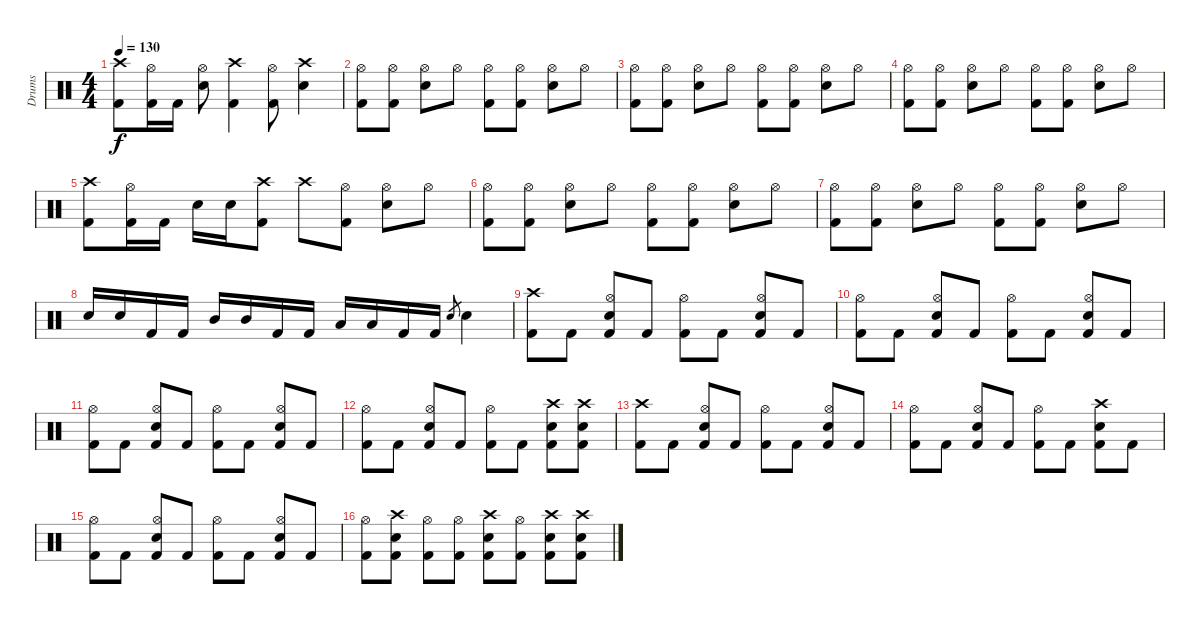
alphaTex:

\track ("Drums" "Drums") {instrument percussion}
\staff {score}
\articulation defaults
\ts (4 4)
\tempo 130
\clef neutral
\ks c
("Crash high (hit)" "Kick (hit) 2").8{dy f} ("Hi-Hat (open)" "Kick (hit) 2").16 "Kick (hit) 2".16 ("Hi-Hat (open)" "Electric Snare (hit)").8 ("Crash high (hit)" "Kick (hit) 2").4 ("Hi-Hat (open)" "Kick (hit) 2").8 ("Crash high (hit)" "Electric Snare (hit)").4 |
("Hi-Hat (open)" "Kick (hit) 2").8 ("Hi-Hat (open)" "Kick (hit) 2").8 ("Hi-Hat (open)" "Electric Snare (hit)").8 "Hi-Hat (open)".8 ("Hi-Hat (open)" "Kick (hit) 2").8 ("Hi-Hat (open)" "Kick (hit) 2").8 ("Hi-Hat (open)" "Electric Snare (hit)").8 "Hi-Hat (open)".8 |
("Hi-Hat (open)" "Kick (hit) 2").8 ("Hi-Hat (open)" "Kick (hit) 2").8 ("Hi-Hat (open)" "Electric Snare (hit)").8 "Hi-Hat (open)".8 ("Hi-Hat (open)" "Kick (hit) 2").8 ("Hi-Hat (open)" "Kick (hit) 2").8 ("Hi-Hat (open)" "Electric Snare (hit)").8 "Hi-Hat (open)".8 |
("Hi-Hat (open)" "Kick (hit) 2").8 ("Hi-Hat (open)" "Kick (hit) 2").8 ("Hi-Hat (open)" "Electric Snare (hit)").8 "Hi-Hat (open)".8 ("Hi-Hat (open)" "Kick (hit) 2").8 ("Hi-Hat (open)" "Kick (hit) 2").8 ("Hi-Hat (open)" "Electric Snare (hit)").8 "Hi-Hat (open)".8 |
("Crash high (hit)" "Kick (hit) 2").8 ("Hi-Hat (open)" "Kick (hit) 2").16 "Kick (hit) 2".16 "Electric Snare (hit)".16 "Electric Snare (hit)".16 ("Crash high (hit)" "Kick (hit) 2").8 "Crash high (hit)".8 ("Hi-Hat (open)" "Kick (hit) 2").8 ("Hi-Hat (open)" "Electric Snare (hit)").8 "Hi-Hat (open)".8 |
("Hi-Hat (open)" "Kick (hit) 2").8 ("Hi-Hat (open)" "Kick (hit) 2").8 ("Hi-Hat (open)" "Electric Snare (hit)").8 "Hi-Hat (open)".8 ("Hi-Hat (open)" "Kick (hit) 2").8 ("Hi-Hat (open)" "Kick (hit) 2").8 ("Hi-Hat (open)" "Electric Snare (hit)").8 "Hi-Hat (open)".8 |
("Hi-Hat (open)" "Kick (hit) 2").8 ("Hi-Hat (open)" "Kick (hit) 2").8 ("Hi-Hat (open)" "Electric Snare (hit)").8 "Hi-Hat (open)".8 ("Hi-Hat (open)" "Kick (hit) 2").8 ("Hi-Hat (open)" "Kick (hit) 2").8 ("Hi-Hat (open)" "Electric Snare (hit)").8 "Hi-Hat (open)".8 |
"Electric Snare (hit)".16 "Electric Snare (hit)".16 "Kick (hit) 2".16 "Kick (hit) 2".16 "Mid Tom (hit)".16 "Mid Tom (hit)".16 "Kick (hit) 2".16 "Kick (hit) 2".16 "Low Tom (hit)".16 "Low Tom (hit)".16 "Kick (hit) 2".16 "Kick (hit) 2".16 "Electric Snare (hit)".8{gr} "Electric Snare (hit)".4 |
("Crash high (hit)" "Kick (hit) 2").8 "Kick (hit) 2".8 ("Hi-Hat (open)" "Electric Snare (hit)" "Kick (hit) 2").8 "Kick (hit) 2".8 ("Hi-Hat (open)" "Kick (hit) 2").8 "Kick (hit) 2".8 ("Hi-Hat (open)" "Electric Snare (hit)" "Kick (hit) 2").8 "Kick (hit) 2".8 |
("Hi-Hat (open)" "Kick (hit) 2").8 "Kick (hit) 2".8 ("Hi-Hat (open)" "Electric Snare (hit)" "Kick (hit) 2").8 "Kick (hit) 2".8 ("Hi-Hat (open)" "Kick (hit) 2").8 "Kick (hit) 2".8 ("Hi-Hat (open)" "Electric Snare (hit)" "Kick (hit) 2").8 "Kick (hit) 2".8 |
("Hi-Hat (open)" "Kick (hit) 2").8 "Kick (hit) 2".8 ("Hi-Hat (open)" "Electric Snare (hit)" "Kick (hit) 2").8 "Kick (hit) 2".8 ("Hi-Hat (open)" "Kick (hit) 2").8 "Kick (hit) 2".8 ("Hi-Hat (open)" "Electric Snare (hit)" "Kick (hit) 2").8 "Kick (hit) 2".8 |
("Hi-Hat (open)" "Kick (hit) 2").8 "Kick (hit) 2".8 ("Hi-Hat (open)" "Electric Snare (hit)" "Kick (hit) 2").8 "Kick (hit) 2".8 ("Hi-Hat (open)" "Kick (hit) 2").8 "Kick (hit) 2".8 ("Crash high (hit)" "Electric Snare (hit)" "Kick (hit) 2").8 ("Crash high (hit)" "Electric Snare (hit)" "Kick (hit) 2").8 |
("Crash high (hit)" "Kick (hit) 2").8 "Kick (hit) 2".8 ("Hi-Hat (open)" "Electric Snare (hit)" "Kick (hit) 2").8 "Kick (hit) 2".8 ("Hi-Hat (open)" "Kick (hit) 2").8 "Kick (hit) 2".8 ("Hi-Hat (open)" "Electric Snare (hit)" "Kick (hit) 2").8 "Kick (hit) 2".8 |
("Hi-Hat (open)" "Kick (hit) 2").8 "Kick (hit) 2".8 ("Hi-Hat (open)" "Electric Snare (hit)" "Kick (hit) 2").8 "Kick (hit) 2".8 ("Hi-Hat (open)" "Kick (hit) 2").8 "Kick (hit) 2".8 ("Crash high (hit)" "Electric Snare (hit)" "Kick (hit) 2").8 "Kick (hit) 2".8 |
("Hi-Hat (open)" "Kick (hit) 2").8 "Kick (hit) 2".8 ("Hi-Hat (open)" "Electric Snare (hit)" "Kick (hit) 2").8 "Kick (hit) 2".8 ("Hi-Hat (open)" "Kick (hit) 2").8 "Kick (hit) 2".8 ("Hi-Hat (open)" "Electric Snare (hit)" "Kick (hit) 2").8 "Kick (hit) 2".8 |
("Hi-Hat (open)" "Kick (hit) 2").8 ("Crash high (hit)" "Electric Snare (hit)" "Kick (hit) 2").8 ("Hi-Hat (open)" "Kick (hit) 2").8 ("Hi-Hat (open)" "Kick (hit) 2").8 ("Crash high (hit)" "Electric Snare (hit)" "Kick (hit) 2").8 ("Hi-Hat (open)" "Kick (hit) 2").8 ("Crash high (hit)" "Electric Snare (hit)" "Kick (hit) 2").8 ("Crash high (hit)" "Electric Snare (hit)" "Kick (hit) 2").8
